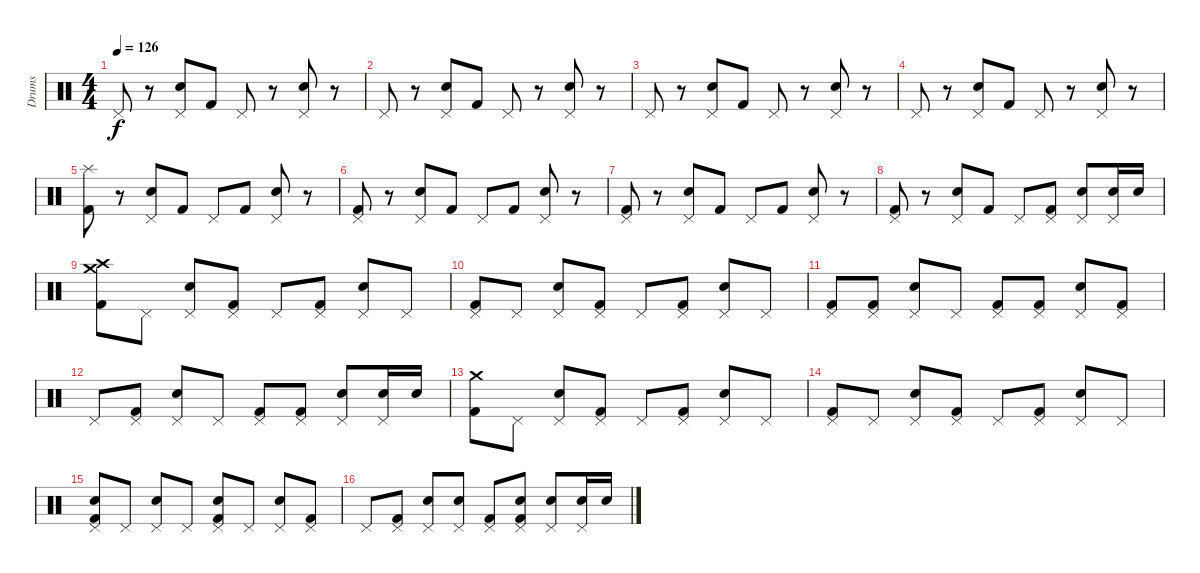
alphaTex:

\track ("Drums" "Drums") {instrument percussion}
\staff {score}
\articulation defaults
\ts (4 4)
\tempo 126
\clef neutral
\ks c "Pedal Hi-Hat (hit)".8{dy f}
r.8 ("Pedal Hi-Hat (hit)" "Snare (hit) 2").8 "Kick (hit) 2".8 "Pedal Hi-Hat (hit)".8 r.8 ("Pedal Hi-Hat (hit)" "Snare (hit) 2").8 r.8 |
"Pedal Hi-Hat (hit)".8 r.8 ("Pedal Hi-Hat (hit)" "Snare (hit) 2").8 "Kick (hit) 2".8 "Pedal Hi-Hat (hit)".8 r.8 ("Pedal Hi-Hat (hit)" "Snare (hit) 2").8 r.8 |
"Pedal Hi-Hat (hit)".8 r.8 ("Pedal Hi-Hat (hit)" "Snare (hit) 2").8 "Kick (hit) 2".8 "Pedal Hi-Hat (hit)".8 r.8 ("Pedal Hi-Hat (hit)" "Snare (hit) 2").8 r.8 |
"Pedal Hi-Hat (hit)".8 r.8 ("Pedal Hi-Hat (hit)" "Snare (hit) 2").8 "Kick (hit) 2".8 "Pedal Hi-Hat (hit)".8 r.8 ("Pedal Hi-Hat (hit)" "Snare (hit) 2").8 r.8 |
("Splash (hit)" "Kick (hit) 2").8 r.8 ("Pedal Hi-Hat (hit)" "Snare (hit) 2").8 "Kick (hit) 2".8 "Pedal Hi-Hat (hit)".8 "Kick (hit) 2".8 ("Pedal Hi-Hat (hit)" "Snare (hit) 2").8 r.8 |
("Pedal Hi-Hat (hit)" "Kick (hit) 2").8 r.8 ("Pedal Hi-Hat (hit)" "Snare (hit) 2").8 "Kick (hit) 2".8 "Pedal Hi-Hat (hit)".8 "Kick (hit) 2".8 ("Pedal Hi-Hat (hit)" "Snare (hit) 2").8 r.8 |
("Pedal Hi-Hat (hit)" "Kick (hit) 2").8 r.8 ("Pedal Hi-Hat (hit)" "Snare (hit) 2").8 "Kick (hit) 2".8 "Pedal Hi-Hat (hit)".8 "Kick (hit) 2".8 ("Pedal Hi-Hat (hit)" "Snare (hit) 2").8 r.8 |
("Pedal Hi-Hat (hit)" "Kick (hit) 2").8 r.8 ("Pedal Hi-Hat (hit)" "Snare (hit) 2").8 "Kick (hit) 2".8 "Pedal Hi-Hat (hit)".8 ("Pedal Hi-Hat (hit)" "Kick (hit) 2").8 ("Pedal Hi-Hat (hit)" "Snare (hit) 2").8 ("Pedal Hi-Hat (hit)" "Snare (hit) 2").16 "Snare (hit) 2".16 |
("Crash medium (hit)" "Crash high (hit)" "Kick (hit) 2").8 "Pedal Hi-Hat (hit)".8 ("Pedal Hi-Hat (hit)" "Snare (hit) 2").8 ("Pedal Hi-Hat (hit)" "Kick (hit) 2").8 "Pedal Hi-Hat (hit)".8 ("Pedal Hi-Hat (hit)" "Kick (hit) 2").8 ("Pedal Hi-Hat (hit)" "Snare (hit) 2").8 "Pedal Hi-Hat (hit)".8 |
("Pedal Hi-Hat (hit)" "Kick (hit) 2").8 "Pedal Hi-Hat (hit)".8 ("Pedal Hi-Hat (hit)" "Snare (hit) 2").8 ("Pedal Hi-Hat (hit)" "Kick (hit) 2").8 "Pedal Hi-Hat (hit)".8 ("Pedal Hi-Hat (hit)" "Kick (hit) 2").8 ("Pedal Hi-Hat (hit)" "Snare (hit) 2").8 "Pedal Hi-Hat (hit)".8 |
("Pedal Hi-Hat (hit)" "Kick (hit) 2").8 ("Pedal Hi-Hat (hit)" "Kick (hit) 2").8 ("Pedal Hi-Hat (hit)" "Snare (hit) 2").8 "Pedal Hi-Hat (hit)".8 ("Pedal Hi-Hat (hit)" "Kick (hit) 2").8 ("Pedal Hi-Hat (hit)" "Kick (hit) 2").8 ("Pedal Hi-Hat (hit)" "Snare (hit) 2").8 ("Pedal Hi-Hat (hit)" "Kick (hit) 2").8 |
"Pedal Hi-Hat (hit)".8 ("Pedal Hi-Hat (hit)" "Kick (hit) 2").8 ("Pedal Hi-Hat (hit)" "Snare (hit) 2").8 "Pedal Hi-Hat (hit)".8 ("Pedal Hi-Hat (hit)" "Kick (hit) 2").8 ("Pedal Hi-Hat (hit)" "Kick (hit) 2").8 ("Pedal Hi-Hat (hit)" "Snare (hit) 2").8 ("Pedal Hi-Hat (hit)" "Snare (hit) 2").16 "Snare (hit) 2".16 |
("Crash medium (hit)" "Kick (hit) 2").8 "Pedal Hi-Hat (hit)".8 ("Pedal Hi-Hat (hit)" "Snare (hit) 2").8 ("Pedal Hi-Hat (hit)" "Kick (hit) 2").8 "Pedal Hi-Hat (hit)".8 ("Pedal Hi-Hat (hit)" "Kick (hit) 2").8 ("Pedal Hi-Hat (hit)" "Snare (hit) 2").8 "Pedal Hi-Hat (hit)".8 |
("Pedal Hi-Hat (hit)" "Kick (hit) 2").8 "Pedal Hi-Hat (hit)".8 ("Pedal Hi-Hat (hit)" "Snare (hit) 2").8 ("Pedal Hi-Hat (hit)" "Kick (hit) 2").8 "Pedal Hi-Hat (hit)".8 ("Pedal Hi-Hat (hit)" "Kick (hit) 2").8 ("Pedal Hi-Hat (hit)" "Snare (hit) 2").8 "Pedal Hi-Hat (hit)".8 |
("Pedal Hi-Hat (hit)" "Snare (hit) 2" "Kick (hit) 2").8 "Pedal Hi-Hat (hit)".8 ("Pedal Hi-Hat (hit)" "Snare (hit) 2").8 "Pedal Hi-Hat (hit)".8 ("Pedal Hi-Hat (hit)" "Snare (hit) 2" "Kick (hit) 2").8 "Pedal Hi-Hat (hit)".8 ("Pedal Hi-Hat (hit)" "Snare (hit) 2").8 ("Pedal Hi-Hat (hit)" "Kick (hit) 2").8 |
"Pedal Hi-Hat (hit)".8 ("Pedal Hi-Hat (hit)" "Kick (hit) 2").8 ("Pedal Hi-Hat (hit)" "Snare (hit) 2").8 ("Pedal Hi-Hat (hit)" "Snare (hit) 2").8 ("Pedal Hi-Hat (hit)" "Kick (hit) 2").8 ("Pedal Hi-Hat (hit)" "Snare (hit) 2" "Kick (hit) 2").8 ("Pedal Hi-Hat (hit)" "Snare (hit) 2").8 ("Pedal Hi-Hat (hit)" "Snare (hit) 2").16 "Snare (hit) 2".16
